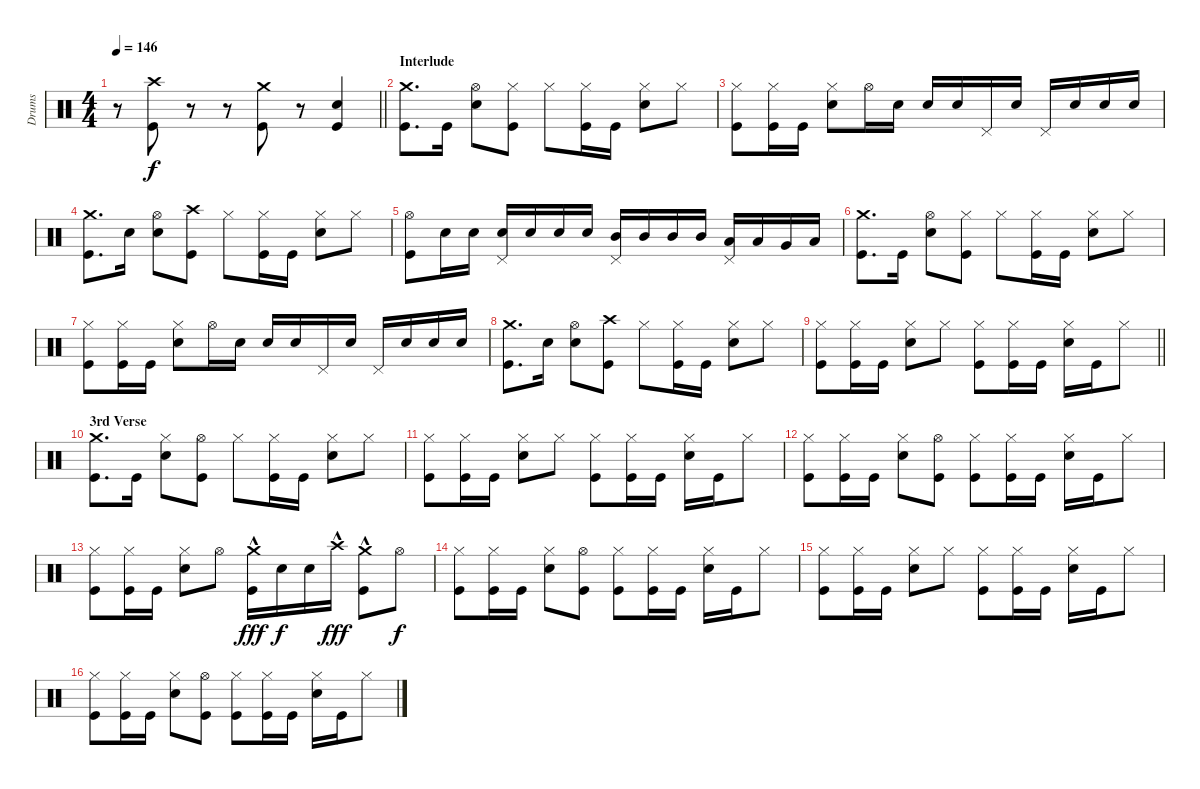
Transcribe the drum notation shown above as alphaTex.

\track ("Drums" "Drums") {instrument percussion}
\staff {score}
\articulation defaults
\ts (4 4)
\tempo 146
\clef neutral
\barLineRight lightlight
\ks c
r.8{dy f} ("Crash high (hit)" "Kick (hit)").8 r.8 r.8 ("Crash medium (hit)" "Kick (hit)").8 r.8 ("Electric Snare (hit)" "Kick (hit)").4 |
\section ("" "Interlude")
("Crash medium (hit)" "Kick (hit)").8{d} "Kick (hit)".16 ("Hi-Hat (open)" "Electric Snare (hit)").8 ("Hi-Hat (closed)" "Kick (hit)").8 "Hi-Hat (closed)".8 ("Hi-Hat (closed)" "Kick (hit)").16 "Kick (hit)".16 ("Hi-Hat (closed)" "Electric Snare (hit)").8 "Hi-Hat (closed)".8 |
("Hi-Hat (closed)" "Kick (hit)").8 ("Hi-Hat (closed)" "Kick (hit)").16 "Kick (hit)".16 ("Hi-Hat (closed)" "Electric Snare (hit)").8 "Hi-Hat (open)".16 "Electric Snare (hit)".16 "Electric Snare (hit)".16 "Electric Snare (hit)".16 "Pedal Hi-Hat (hit)".16 "Electric Snare (hit)".16 "Pedal Hi-Hat (hit)".16 "Electric Snare (hit)".16 "Electric Snare (hit)".16 "Electric Snare (hit)".16 |
("Crash medium (hit)" "Kick (hit)").8{d} "Electric Snare (hit)".16 ("Hi-Hat (open)" "Electric Snare (hit)").8 ("Crash high (hit)" "Kick (hit)").8 "Hi-Hat (closed)".8 ("Hi-Hat (closed)" "Kick (hit)").16 "Kick (hit)".16 ("Hi-Hat (closed)" "Electric Snare (hit)").8 "Hi-Hat (closed)".8 |
("Hi-Hat (open)" "Kick (hit)").8 "Electric Snare (hit)".16 "Electric Snare (hit)".16 ("Pedal Hi-Hat (hit)" "Electric Snare (hit)").16 "Electric Snare (hit)".16 "Electric Snare (hit)".16 "Electric Snare (hit)".16 ("Pedal Hi-Hat (hit)" "Mid Tom (hit)").16 "Mid Tom (hit)".16 "Mid Tom (hit)".16 "Mid Tom (hit)".16 ("Pedal Hi-Hat (hit)" "Low Tom (hit)").16 "Low Tom (hit)".16 "Very Low Tom (hit)".16 "Low Floor Tom (hit)".16 |
("Crash medium (hit)" "Kick (hit)").8{d} "Kick (hit)".16 ("Hi-Hat (open)" "Electric Snare (hit)").8 ("Hi-Hat (closed)" "Kick (hit)").8 "Hi-Hat (closed)".8 ("Hi-Hat (closed)" "Kick (hit)").16 "Kick (hit)".16 ("Hi-Hat (closed)" "Electric Snare (hit)").8 "Hi-Hat (closed)".8 |
("Hi-Hat (closed)" "Kick (hit)").8 ("Hi-Hat (closed)" "Kick (hit)").16 "Kick (hit)".16 ("Hi-Hat (closed)" "Electric Snare (hit)").8 "Hi-Hat (open)".16 "Electric Snare (hit)".16 "Electric Snare (hit)".16 "Electric Snare (hit)".16 "Pedal Hi-Hat (hit)".16 "Electric Snare (hit)".16 "Pedal Hi-Hat (hit)".16 "Electric Snare (hit)".16 "Electric Snare (hit)".16 "Electric Snare (hit)".16 |
("Crash medium (hit)" "Kick (hit)").8{d} "Electric Snare (hit)".16 ("Hi-Hat (open)" "Electric Snare (hit)").8 ("Crash high (hit)" "Kick (hit)").8 "Hi-Hat (closed)".8 ("Hi-Hat (closed)" "Kick (hit)").16 "Kick (hit)".16 ("Hi-Hat (closed)" "Electric Snare (hit)").8 "Hi-Hat (closed)".8 |
\barLineRight lightlight
("Hi-Hat (closed)" "Kick (hit)").8 ("Hi-Hat (closed)" "Kick (hit)").16 "Kick (hit)".16 ("Hi-Hat (closed)" "Electric Snare (hit)").8 "Hi-Hat (closed)".8 ("Hi-Hat (closed)" "Kick (hit)").8 ("Hi-Hat (closed)" "Kick (hit)").16 "Kick (hit)".16 ("Hi-Hat (closed)" "Electric Snare (hit)").16 "Kick (hit)".16 "Hi-Hat (closed)".8 |
\section ("" "3rd Verse")
("Crash medium (hit)" "Kick (hit)").8{d} "Kick (hit)".16 ("Hi-Hat (closed)" "Electric Snare (hit)").8 ("Hi-Hat (open)" "Kick (hit)").8 "Hi-Hat (closed)".8 ("Hi-Hat (closed)" "Kick (hit)").16 "Kick (hit)".16 ("Hi-Hat (closed)" "Electric Snare (hit)").8 "Hi-Hat (closed)".8 |
("Hi-Hat (closed)" "Kick (hit)").8 ("Hi-Hat (closed)" "Kick (hit)").16 "Kick (hit)".16 ("Hi-Hat (closed)" "Electric Snare (hit)").8 "Hi-Hat (closed)".8 ("Hi-Hat (closed)" "Kick (hit)").8 ("Hi-Hat (closed)" "Kick (hit)").16 "Kick (hit)".16 ("Hi-Hat (closed)" "Electric Snare (hit)").16 "Kick (hit)".16 "Hi-Hat (closed)".8 |
("Hi-Hat (closed)" "Kick (hit)").8 ("Hi-Hat (closed)" "Kick (hit)").16 "Kick (hit)".16 ("Hi-Hat (closed)" "Electric Snare (hit)").8 ("Hi-Hat (open)" "Kick (hit)").8 ("Hi-Hat (closed)" "Kick (hit)").8 ("Hi-Hat (closed)" "Kick (hit)").16 "Kick (hit)".16 ("Hi-Hat (closed)" "Electric Snare (hit)").16 "Kick (hit)".16 "Hi-Hat (closed)".8 |
("Hi-Hat (closed)" "Kick (hit)").8 ("Hi-Hat (closed)" "Kick (hit)").16 "Kick (hit)".16 ("Hi-Hat (closed)" "Electric Snare (hit)").8 "Hi-Hat (open)".8 ("Crash medium (hit)"{hac} "Kick (hit)").16{dy fff} "Electric Snare (hit)".16{dy f} "Electric Snare (hit)".16 "Crash high (hit)"{hac}.16{dy fff} ("Crash medium (hit)"{hac} "Kick (hit)").8 "Hi-Hat (open)".8{dy f} |
("Hi-Hat (closed)" "Kick (hit)").8 ("Hi-Hat (closed)" "Kick (hit)").16 "Kick (hit)".16 ("Hi-Hat (closed)" "Electric Snare (hit)").8 ("Hi-Hat (open)" "Kick (hit)").8 ("Hi-Hat (closed)" "Kick (hit)").8 ("Hi-Hat (closed)" "Kick (hit)").16 "Kick (hit)".16 ("Hi-Hat (closed)" "Electric Snare (hit)").16 "Kick (hit)".16 "Hi-Hat (closed)".8 |
("Hi-Hat (closed)" "Kick (hit)").8 ("Hi-Hat (closed)" "Kick (hit)").16 "Kick (hit)".16 ("Hi-Hat (closed)" "Electric Snare (hit)").8 "Hi-Hat (closed)".8 ("Hi-Hat (closed)" "Kick (hit)").8 ("Hi-Hat (closed)" "Kick (hit)").16 "Kick (hit)".16 ("Hi-Hat (closed)" "Electric Snare (hit)").16 "Kick (hit)".16 "Hi-Hat (closed)".8 |
("Hi-Hat (closed)" "Kick (hit)").8 ("Hi-Hat (closed)" "Kick (hit)").16 "Kick (hit)".16 ("Hi-Hat (closed)" "Electric Snare (hit)").8 ("Hi-Hat (open)" "Kick (hit)").8 ("Hi-Hat (closed)" "Kick (hit)").8 ("Hi-Hat (closed)" "Kick (hit)").16 "Kick (hit)".16 ("Hi-Hat (closed)" "Electric Snare (hit)").16 "Kick (hit)".16 "Hi-Hat (closed)".8
